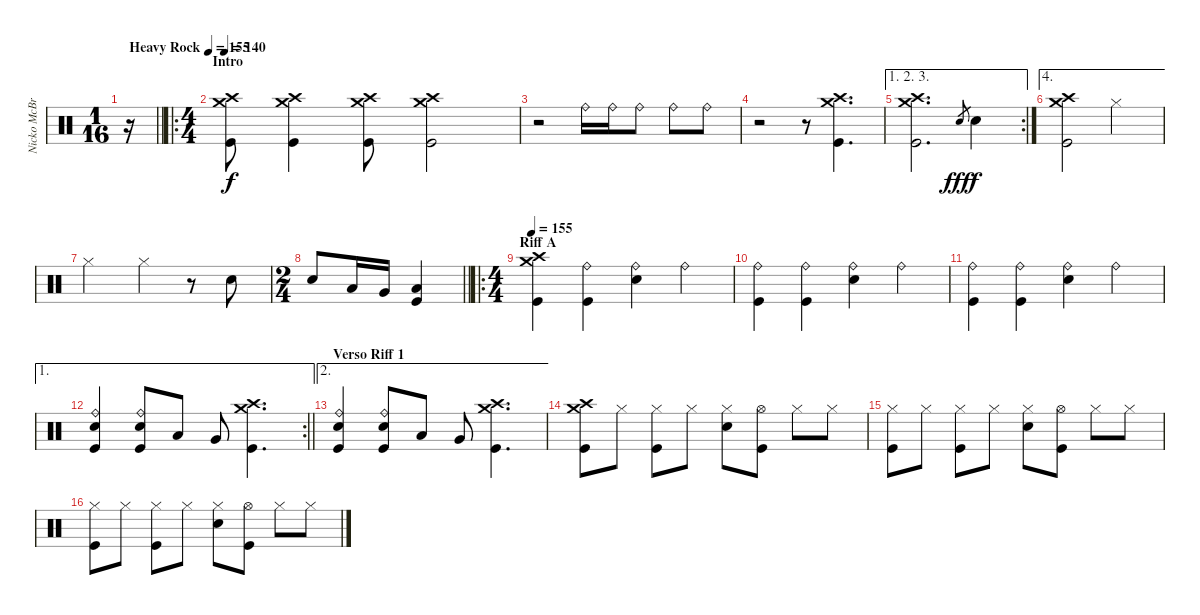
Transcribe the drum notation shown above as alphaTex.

\track ("Nicko McBrain" "Nicko McBr") {instrument percussion}
\staff {score}
\articulation defaults
\ts (1 16)
\tempo (155 "Heavy Rock")
\clef neutral
\barLineRight lightlight
\ks c
r.16{dy f} |
\ro
\ts (4 4)
\section ("" "Intro")
\tempo 140
("Crash medium (hit)" "Crash high (hit)" "Kick (hit)").8 ("Crash medium (hit)" "Crash high (hit)" "Kick (hit)").4 ("Crash medium (hit)" "Crash high (hit)" "Kick (hit)").8 ("Crash medium (hit)" "Crash high (hit)" "Kick (hit)").2 |
r.2 "Ride (bell)".16 "Ride (bell)".16 "Ride (bell)".8 "Ride (bell)".8 "Ride (bell)".8 |
r.2 r.8 ("Crash medium (hit)" "Crash high (hit)" "Kick (hit)").4{d} |
\ae (1 2 3)
\rc 2
("Crash medium (hit)" "Crash high (hit)" "Kick (hit)").2{d} "Snare (hit) 2".8{gr dy fff} "Snare (hit) 2".4{dy f} |
\ae 4
("Crash medium (hit)" "Crash high (hit)" "Kick (hit)").2 "Hi-Hat (closed)".2 |
"Hi-Hat (closed)".2 "Hi-Hat (closed)".4 r.8 "Snare (hit) 2".8 |
\ts (2 4)
\barLineRight lightlight "Snare (hit) 2".8 "Low Tom (hit)".16 "Very Low Tom (hit)".16
("Low Floor Tom (hit)" "Kick (hit)").4 |
\ro
\ts (4 4)
\section ("" "Riff A")
\tempo 155
("Crash medium (hit)" "Crash high (hit)" "Kick (hit)").4 ("Ride (bell)" "Kick (hit)").4 ("Ride (bell)" "Snare (hit) 2").4 "Ride (bell)".4 |
("Ride (bell)" "Kick (hit)").4 ("Ride (bell)" "Kick (hit)").4 ("Ride (bell)" "Snare (hit) 2").4 "Ride (bell)".4 |
("Ride (bell)" "Kick (hit)").4 ("Ride (bell)" "Kick (hit)").4 ("Ride (bell)" "Snare (hit) 2").4 "Ride (bell)".4 |
\ae 1
\rc 2
\barLineRight lightlight
("Ride (bell)" "Snare (hit) 2" "Kick (hit)").4 ("Ride (bell)" "Snare (hit) 2" "Kick (hit)").8 "Low Tom (hit)".8 "Very Low Tom (hit)".8 ("Crash medium (hit)" "Crash high (hit)" "Kick (hit)").4{d} |
\ae 2
\section ("" "Verso Riff 1")
("Ride (bell)" "Snare (hit) 2" "Kick (hit)").4 ("Ride (bell)" "Snare (hit) 2" "Kick (hit)").8 "Low Tom (hit)".8 "Very Low Tom (hit)".8 ("Crash medium (hit)" "Crash high (hit)" "Kick (hit)").4{d} |
("Crash medium (hit)" "Crash high (hit)" "Kick (hit)").8 "Hi-Hat (closed)".8 ("Hi-Hat (closed)" "Kick (hit)").8 "Hi-Hat (closed)".8 ("Hi-Hat (closed)" "Snare (hit) 2").8 ("Hi-Hat (open)" "Kick (hit)").8 "Hi-Hat (closed)".8 "Hi-Hat (closed)".8 |
("Hi-Hat (closed)" "Kick (hit)").8 "Hi-Hat (closed)".8 ("Hi-Hat (closed)" "Kick (hit)").8 "Hi-Hat (closed)".8 ("Hi-Hat (closed)" "Snare (hit) 2").8 ("Hi-Hat (open)" "Kick (hit)").8 "Hi-Hat (closed)".8 "Hi-Hat (closed)".8 |
("Hi-Hat (closed)" "Kick (hit)").8 "Hi-Hat (closed)".8 ("Hi-Hat (closed)" "Kick (hit)").8 "Hi-Hat (closed)".8 ("Hi-Hat (closed)" "Snare (hit) 2").8 ("Hi-Hat (open)" "Kick (hit)").8 "Hi-Hat (closed)".8 "Hi-Hat (closed)".8
